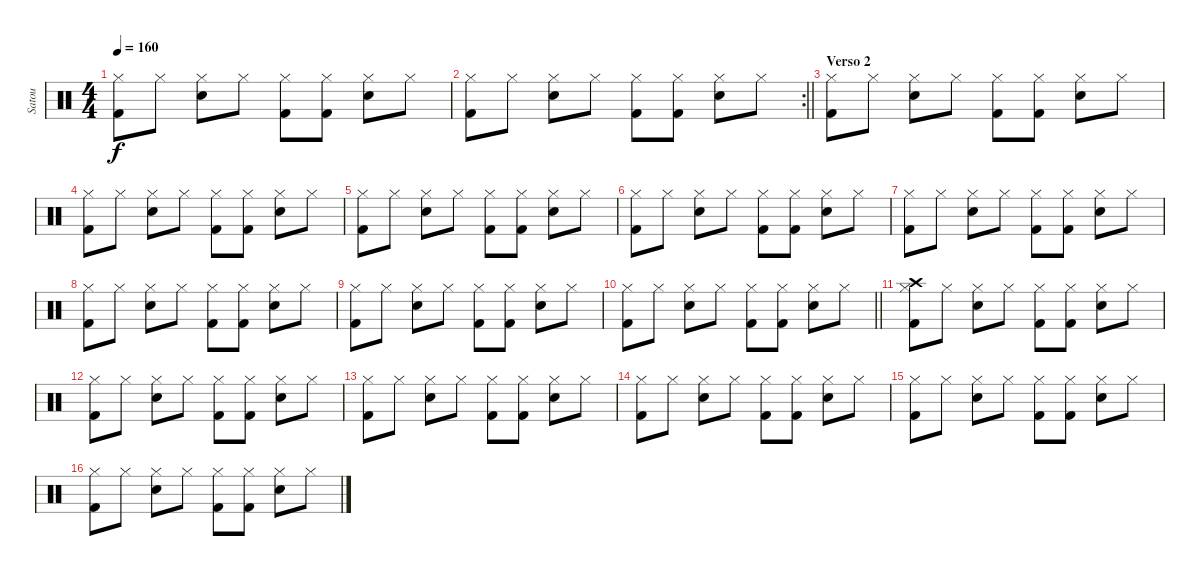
\track ("Satou" "Satou") {instrument percussion}
\staff {score}
\articulation defaults
\ts (4 4)
\tempo 160
\clef neutral
\ks c
("Hi-Hat (closed)" "Kick (hit) 2").8{dy f} "Hi-Hat (closed)".8 ("Hi-Hat (closed)" "Snare (hit) 2").8 "Hi-Hat (closed)".8 ("Hi-Hat (closed)" "Kick (hit) 2").8 ("Hi-Hat (closed)" "Kick (hit) 2").8 ("Hi-Hat (closed)" "Snare (hit) 2").8 "Hi-Hat (closed)".8 |
\rc 2
\barLineRight lightlight
("Hi-Hat (closed)" "Kick (hit) 2").8 "Hi-Hat (closed)".8 ("Hi-Hat (closed)" "Snare (hit) 2").8 "Hi-Hat (closed)".8 ("Hi-Hat (closed)" "Kick (hit) 2").8 ("Hi-Hat (closed)" "Kick (hit) 2").8 ("Hi-Hat (closed)" "Snare (hit) 2").8 "Hi-Hat (closed)".8 |
\section ("" "Verso 2")
("Hi-Hat (closed)" "Kick (hit) 2").8 "Hi-Hat (closed)".8 ("Hi-Hat (closed)" "Snare (hit) 2").8 "Hi-Hat (closed)".8 ("Hi-Hat (closed)" "Kick (hit) 2").8 ("Hi-Hat (closed)" "Kick (hit) 2").8 ("Hi-Hat (closed)" "Snare (hit) 2").8 "Hi-Hat (closed)".8 |
("Hi-Hat (closed)" "Kick (hit) 2").8 "Hi-Hat (closed)".8 ("Hi-Hat (closed)" "Snare (hit) 2").8 "Hi-Hat (closed)".8 ("Hi-Hat (closed)" "Kick (hit) 2").8 ("Hi-Hat (closed)" "Kick (hit) 2").8 ("Hi-Hat (closed)" "Snare (hit) 2").8 "Hi-Hat (closed)".8 |
("Hi-Hat (closed)" "Kick (hit) 2").8 "Hi-Hat (closed)".8 ("Hi-Hat (closed)" "Snare (hit) 2").8 "Hi-Hat (closed)".8 ("Hi-Hat (closed)" "Kick (hit) 2").8 ("Hi-Hat (closed)" "Kick (hit) 2").8 ("Hi-Hat (closed)" "Snare (hit) 2").8 "Hi-Hat (closed)".8 |
("Hi-Hat (closed)" "Kick (hit) 2").8 "Hi-Hat (closed)".8 ("Hi-Hat (closed)" "Snare (hit) 2").8 "Hi-Hat (closed)".8 ("Hi-Hat (closed)" "Kick (hit) 2").8 ("Hi-Hat (closed)" "Kick (hit) 2").8 ("Hi-Hat (closed)" "Snare (hit) 2").8 "Hi-Hat (closed)".8 |
("Hi-Hat (closed)" "Kick (hit) 2").8 "Hi-Hat (closed)".8 ("Hi-Hat (closed)" "Snare (hit) 2").8 "Hi-Hat (closed)".8 ("Hi-Hat (closed)" "Kick (hit) 2").8 ("Hi-Hat (closed)" "Kick (hit) 2").8 ("Hi-Hat (closed)" "Snare (hit) 2").8 "Hi-Hat (closed)".8 |
("Hi-Hat (closed)" "Kick (hit) 2").8 "Hi-Hat (closed)".8 ("Hi-Hat (closed)" "Snare (hit) 2").8 "Hi-Hat (closed)".8 ("Hi-Hat (closed)" "Kick (hit) 2").8 ("Hi-Hat (closed)" "Kick (hit) 2").8 ("Hi-Hat (closed)" "Snare (hit) 2").8 "Hi-Hat (closed)".8 |
("Hi-Hat (closed)" "Kick (hit) 2").8 "Hi-Hat (closed)".8 ("Hi-Hat (closed)" "Snare (hit) 2").8 "Hi-Hat (closed)".8 ("Hi-Hat (closed)" "Kick (hit) 2").8 ("Hi-Hat (closed)" "Kick (hit) 2").8 ("Hi-Hat (closed)" "Snare (hit) 2").8 "Hi-Hat (closed)".8 |
\barLineRight lightlight
("Hi-Hat (closed)" "Kick (hit) 2").8 "Hi-Hat (closed)".8 ("Hi-Hat (closed)" "Snare (hit) 2").8 "Hi-Hat (closed)".8 ("Hi-Hat (closed)" "Kick (hit) 2").8 ("Hi-Hat (closed)" "Kick (hit) 2").8 ("Hi-Hat (closed)" "Snare (hit) 2").8 "Hi-Hat (closed)".8 |
("Hi-Hat (closed)" "Kick (hit) 2" "Crash high (hit)").8 "Hi-Hat (closed)".8 ("Hi-Hat (closed)" "Snare (hit) 2").8 "Hi-Hat (closed)".8 ("Hi-Hat (closed)" "Kick (hit) 2").8 ("Hi-Hat (closed)" "Kick (hit) 2").8 ("Hi-Hat (closed)" "Snare (hit) 2").8 "Hi-Hat (closed)".8 |
("Hi-Hat (closed)" "Kick (hit) 2").8 "Hi-Hat (closed)".8 ("Hi-Hat (closed)" "Snare (hit) 2").8 "Hi-Hat (closed)".8 ("Hi-Hat (closed)" "Kick (hit) 2").8 ("Hi-Hat (closed)" "Kick (hit) 2").8 ("Hi-Hat (closed)" "Snare (hit) 2").8 "Hi-Hat (closed)".8 |
("Hi-Hat (closed)" "Kick (hit) 2").8 "Hi-Hat (closed)".8 ("Hi-Hat (closed)" "Snare (hit) 2").8 "Hi-Hat (closed)".8 ("Hi-Hat (closed)" "Kick (hit) 2").8 ("Hi-Hat (closed)" "Kick (hit) 2").8 ("Hi-Hat (closed)" "Snare (hit) 2").8 "Hi-Hat (closed)".8 |
("Hi-Hat (closed)" "Kick (hit) 2").8 "Hi-Hat (closed)".8 ("Hi-Hat (closed)" "Snare (hit) 2").8 "Hi-Hat (closed)".8 ("Hi-Hat (closed)" "Kick (hit) 2").8 ("Hi-Hat (closed)" "Kick (hit) 2").8 ("Hi-Hat (closed)" "Snare (hit) 2").8 "Hi-Hat (closed)".8 |
("Hi-Hat (closed)" "Kick (hit) 2").8 "Hi-Hat (closed)".8 ("Hi-Hat (closed)" "Snare (hit) 2").8 "Hi-Hat (closed)".8 ("Hi-Hat (closed)" "Kick (hit) 2").8 ("Hi-Hat (closed)" "Kick (hit) 2").8 ("Hi-Hat (closed)" "Snare (hit) 2").8 "Hi-Hat (closed)".8 |
("Hi-Hat (closed)" "Kick (hit) 2").8 "Hi-Hat (closed)".8 ("Hi-Hat (closed)" "Snare (hit) 2").8 "Hi-Hat (closed)".8 ("Hi-Hat (closed)" "Kick (hit) 2").8 ("Hi-Hat (closed)" "Kick (hit) 2").8 ("Hi-Hat (closed)" "Snare (hit) 2").8 "Hi-Hat (closed)".8
